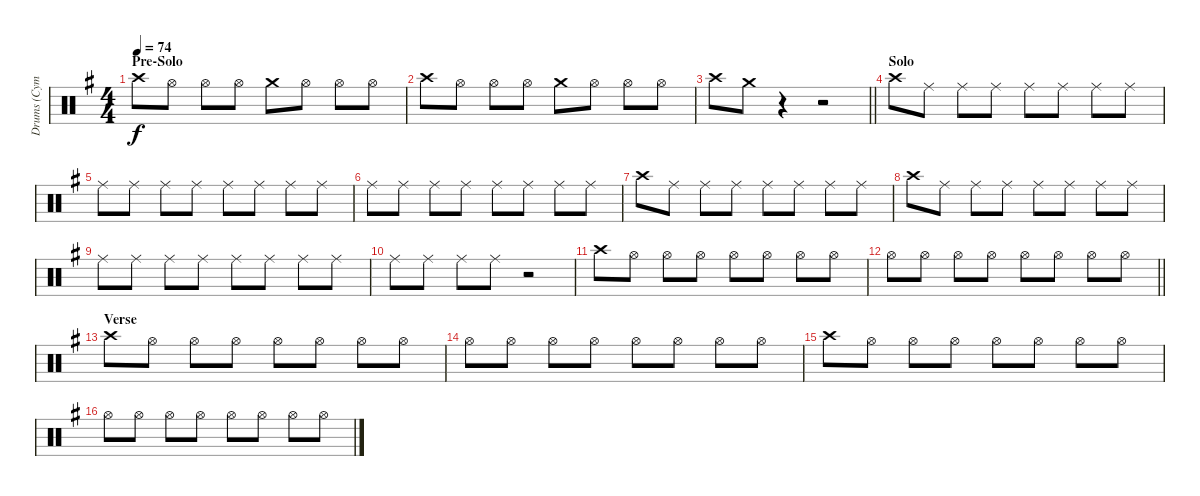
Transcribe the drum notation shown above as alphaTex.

\track ("Drums (Cymbals)" "Drums (Cym") {instrument percussion}
\staff {score}
\articulation defaults
\ts (4 4)
\section ("" "Pre-Solo")
\tempo 74
\clef neutral
\ks g "Crash high (hit)".8{dy f} "Hi-Hat (open)".8 "Hi-Hat (open)".8 "Hi-Hat (open)".8 "Crash medium (hit)".8 "Hi-Hat (open)".8 "Hi-Hat (open)".8 "Hi-Hat (open)".8
|
"Crash high (hit)".8 "Hi-Hat (open)".8 "Hi-Hat (open)".8 "Hi-Hat (open)".8 "Crash medium (hit)".8 "Hi-Hat (open)".8 "Hi-Hat (open)".8 "Hi-Hat (open)".8 |
\barLineRight lightlight "Crash high (hit)".8 "Crash medium (hit)".8
r.4 r.2 |
\section ("" "Solo")
"Crash high (hit)".8 "Ride (middle)".8 "Ride (middle)".8 "Ride (middle)".8 "Ride (middle)".8 "Ride (middle)".8 "Ride (middle)".8 "Ride (middle)".8 |
"Ride (middle)".8 "Ride (middle)".8 "Ride (middle)".8 "Ride (middle)".8 "Ride (middle)".8 "Ride (middle)".8 "Ride (middle)".8 "Ride (middle)".8 |
"Ride (middle)".8 "Ride (middle)".8 "Ride (middle)".8 "Ride (middle)".8 "Ride (middle)".8 "Ride (middle)".8 "Ride (middle)".8 "Ride (middle)".8 |
"Crash high (hit)".8 "Ride (middle)".8 "Ride (middle)".8 "Ride (middle)".8 "Ride (middle)".8 "Ride (middle)".8 "Ride (middle)".8 "Ride (middle)".8 |
"Crash high (hit)".8 "Ride (middle)".8 "Ride (middle)".8 "Ride (middle)".8 "Ride (middle)".8 "Ride (middle)".8 "Ride (middle)".8 "Ride (middle)".8 |
"Ride (middle)".8 "Ride (middle)".8 "Ride (middle)".8 "Ride (middle)".8 "Ride (middle)".8 "Ride (middle)".8 "Ride (middle)".8 "Ride (middle)".8 |
"Ride (middle)".8 "Ride (middle)".8 "Ride (middle)".8 "Ride (middle)".8 r.2 |
"Crash high (hit)".8 "Hi-Hat (open)".8 "Hi-Hat (open)".8 "Hi-Hat (open)".8 "Hi-Hat (open)".8 "Hi-Hat (open)".8 "Hi-Hat (open)".8 "Hi-Hat (open)".8 |
\barLineRight lightlight "Hi-Hat (open)".8 "Hi-Hat (open)".8 "Hi-Hat (open)".8 "Hi-Hat (open)".8 "Hi-Hat (open)".8 "Hi-Hat (open)".8 "Hi-Hat (open)".8 "Hi-Hat (open)".8
|
\section ("" "Verse")
"Crash high (hit)".8 "Hi-Hat (open)".8 "Hi-Hat (open)".8 "Hi-Hat (open)".8 "Hi-Hat (open)".8 "Hi-Hat (open)".8 "Hi-Hat (open)".8 "Hi-Hat (open)".8 |
"Hi-Hat (open)".8 "Hi-Hat (open)".8 "Hi-Hat (open)".8 "Hi-Hat (open)".8 "Hi-Hat (open)".8 "Hi-Hat (open)".8 "Hi-Hat (open)".8 "Hi-Hat (open)".8 |
"Crash high (hit)".8 "Hi-Hat (open)".8 "Hi-Hat (open)".8 "Hi-Hat (open)".8 "Hi-Hat (open)".8 "Hi-Hat (open)".8 "Hi-Hat (open)".8 "Hi-Hat (open)".8 |
"Hi-Hat (open)".8 "Hi-Hat (open)".8 "Hi-Hat (open)".8 "Hi-Hat (open)".8 "Hi-Hat (open)".8 "Hi-Hat (open)".8 "Hi-Hat (open)".8 "Hi-Hat (open)".8
